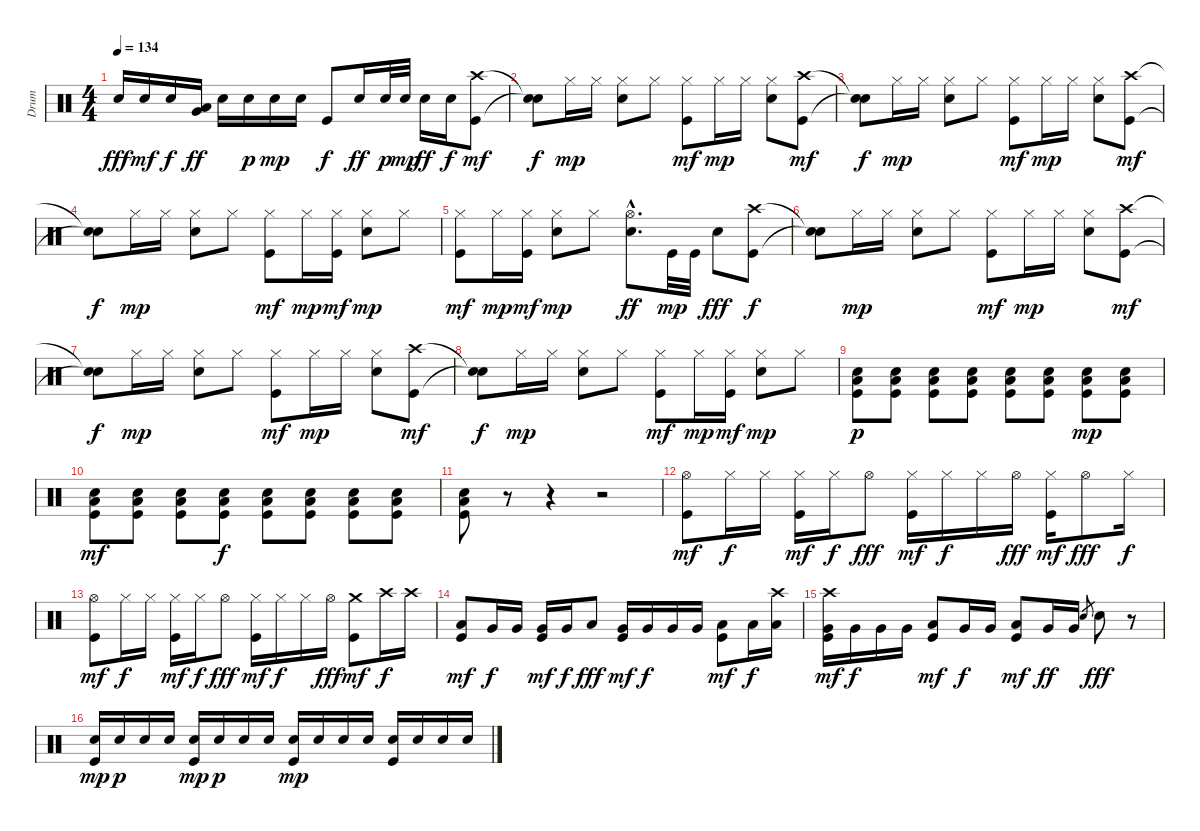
\track ("Drum" "Drum") {instrument percussion}
\staff {score}
\articulation defaults
\ts (4 4)
\tempo 134
\clef neutral
\ks c "Electric Snare (hit)".16{dy fff} "Electric Snare (hit)".16{dy mf} "Electric Snare (hit)".16{dy f}
("Low Tom (hit)" "Very Low Tom (hit)").16{dy ff} "Electric Snare (hit)".16 "Electric Snare (hit)".16{dy p} "Electric Snare (hit)".16{dy mp} "Electric Snare (hit)".16 "Kick (hit)".8{dy f} "Electric Snare (hit)".16{dy ff} "Electric Snare (hit)".32{dy p} "Electric Snare (hit)".32{dy mp} "Electric Snare (hit)".16{dy ff} "Electric Snare (hit)".16{dy f} ("Crash high (hit)" "Kick (hit)").8{dy mf} |
("Snare (hit)"{t} "Snare (hit)"{t}).8{dy f} "Hi-Hat (closed)".16{dy mp} "Hi-Hat (closed)".16 ("Hi-Hat (closed)" "Electric Snare (hit)").8 "Hi-Hat (closed)".8 ("Hi-Hat (closed)" "Kick (hit)").8{dy mf} "Hi-Hat (closed)".16{dy mp} "Hi-Hat (closed)".16 ("Hi-Hat (closed)" "Electric Snare (hit)").8 ("Crash high (hit)" "Kick (hit)").8{dy mf} |
("Snare (hit)"{t} "Snare (hit)"{t}).8{dy f} "Hi-Hat (closed)".16{dy mp} "Hi-Hat (closed)".16 ("Hi-Hat (closed)" "Electric Snare (hit)").8 "Hi-Hat (closed)".8 ("Hi-Hat (closed)" "Kick (hit)").8{dy mf} "Hi-Hat (closed)".16{dy mp} "Hi-Hat (closed)".16 ("Hi-Hat (closed)" "Electric Snare (hit)").8 ("Crash high (hit)" "Kick (hit)").8{dy mf} |
("Snare (hit)"{t} "Snare (hit)"{t}).8{dy f} "Hi-Hat (closed)".16{dy mp} "Hi-Hat (closed)".16 ("Hi-Hat (closed)" "Electric Snare (hit)").8 "Hi-Hat (closed)".8 ("Hi-Hat (closed)" "Kick (hit)").8{dy mf} "Hi-Hat (closed)".16{dy mp} ("Hi-Hat (closed)" "Kick (hit)").16{dy mf} ("Hi-Hat (closed)" "Electric Snare (hit)").8{dy mp} "Hi-Hat (closed)".8 |
("Hi-Hat (closed)" "Kick (hit)").8{dy mf} "Hi-Hat (closed)".16{dy mp} ("Hi-Hat (closed)" "Kick (hit)").16{dy mf} ("Hi-Hat (closed)" "Electric Snare (hit)").8{dy mp} "Hi-Hat (closed)".8 ("Hi-Hat (open)"{hac} "Electric Snare (hit)"{hac}).8{d dy ff} "Kick (hit)".32{dy mp} "Kick (hit)".32 "Electric Snare (hit)".8{dy fff} ("Crash high (hit)" "Kick (hit)").8{dy f} |
("Snare (hit)"{t} "Snare (hit)"{t}).8 "Hi-Hat (closed)".16{dy mp} "Hi-Hat (closed)".16 ("Hi-Hat (closed)" "Electric Snare (hit)").8 "Hi-Hat (closed)".8 ("Hi-Hat (closed)" "Kick (hit)").8{dy mf} "Hi-Hat (closed)".16{dy mp} "Hi-Hat (closed)".16 ("Hi-Hat (closed)" "Electric Snare (hit)").8 ("Crash high (hit)" "Kick (hit)").8{dy mf} |
("Snare (hit)"{t} "Snare (hit)"{t}).8{dy f} "Hi-Hat (closed)".16{dy mp} "Hi-Hat (closed)".16 ("Hi-Hat (closed)" "Electric Snare (hit)").8 "Hi-Hat (closed)".8 ("Hi-Hat (closed)" "Kick (hit)").8{dy mf} "Hi-Hat (closed)".16{dy mp} "Hi-Hat (closed)".16 ("Hi-Hat (closed)" "Electric Snare (hit)").8 ("Crash high (hit)" "Kick (hit)").8{dy mf} |
("Snare (hit)"{t} "Snare (hit)"{t}).8{dy f} "Hi-Hat (closed)".16{dy mp} "Hi-Hat (closed)".16 ("Hi-Hat (closed)" "Electric Snare (hit)").8 "Hi-Hat (closed)".8 ("Hi-Hat (closed)" "Kick (hit)").8{dy mf} "Hi-Hat (closed)".16{dy mp} ("Hi-Hat (closed)" "Kick (hit)").16{dy mf} ("Hi-Hat (closed)" "Electric Snare (hit)").8{dy mp} "Hi-Hat (closed)".8 |
("Low Floor Tom (hit)" "Electric Snare (hit)" "Kick (hit)").8{dy p} ("Low Floor Tom (hit)" "Electric Snare (hit)" "Kick (hit)").8 ("Low Floor Tom (hit)" "Electric Snare (hit)" "Kick (hit)").8 ("Low Floor Tom (hit)" "Electric Snare (hit)" "Kick (hit)").8 ("Low Floor Tom (hit)" "Electric Snare (hit)" "Kick (hit)").8 ("Low Floor Tom (hit)" "Electric Snare (hit)" "Kick (hit)").8 ("Low Floor Tom (hit)" "Electric Snare (hit)" "Kick (hit)").8{dy mp} ("Low Floor Tom (hit)" "Electric Snare (hit)" "Kick (hit)").8 |
("Low Floor Tom (hit)" "Electric Snare (hit)" "Kick (hit)").8{dy mf} ("Low Floor Tom (hit)" "Electric Snare (hit)" "Kick (hit)").8 ("Low Floor Tom (hit)" "Electric Snare (hit)" "Kick (hit)").8 ("Low Floor Tom (hit)" "Electric Snare (hit)" "Kick (hit)").8{dy f} ("Low Floor Tom (hit)" "Electric Snare (hit)" "Kick (hit)").8 ("Low Floor Tom (hit)" "Electric Snare (hit)" "Kick (hit)").8 ("Low Floor Tom (hit)" "Electric Snare (hit)" "Kick (hit)").8 ("Low Floor Tom (hit)" "Electric Snare (hit)" "Kick (hit)").8 |
("Low Floor Tom (hit)" "Electric Snare (hit)" "Kick (hit)").8 r.8 r.4 r.2 |
("Hi-Hat (open)" "Kick (hit)").8{dy mf} "Hi-Hat (closed)".16{dy f} "Hi-Hat (closed)".16 ("Hi-Hat (closed)" "Kick (hit)").16{dy mf} "Hi-Hat (closed)".16{dy f} "Hi-Hat (open)".8{dy fff} ("Hi-Hat (closed)" "Kick (hit)").16{dy mf} "Hi-Hat (closed)".16{dy f} "Hi-Hat (closed)".16 "Hi-Hat (open)".16{dy fff} ("Hi-Hat (closed)" "Kick (hit)").16{dy mf} "Hi-Hat (open)".8{dy fff} "Hi-Hat (closed)".16{dy f} |
("Hi-Hat (open)" "Kick (hit)").8{dy mf} "Hi-Hat (closed)".16{dy f} "Hi-Hat (closed)".16 ("Hi-Hat (closed)" "Kick (hit)").16{dy mf} "Hi-Hat (closed)".16{dy f} "Hi-Hat (open)".8{dy fff} ("Hi-Hat (closed)" "Kick (hit)").16{dy mf} "Hi-Hat (closed)".16{dy f} "Hi-Hat (closed)".16 "Hi-Hat (open)".16{dy fff} ("Crash medium (hit)" "Kick (hit)").8{dy mf} "Crash high (hit)".16{dy f} "Crash high (hit)".16 |
("Low Tom (hit)" "Kick (hit)").8{dy mf} "Very Low Tom (hit)".16{dy f} "Very Low Tom (hit)".16 ("Very Low Tom (hit)" "Kick (hit)").16{dy mf} "Very Low Tom (hit)".16{dy f} "Low Tom (hit)".8{dy fff} ("Very Low Tom (hit)" "Kick (hit)").16{dy mf} "Very Low Tom (hit)".16{dy f} "Very Low Tom (hit)".16 "Very Low Tom (hit)".16 ("Low Tom (hit)" "Kick (hit)").8{dy mf} "Low Tom (hit)".16{dy f} ("Low Tom (hit)" "Crash high (hit)").16 |
("Very Low Tom (hit)" "Crash high (hit)" "Kick (hit)").16{dy mf} "Very Low Tom (hit)".16{dy f} "Very Low Tom (hit)".16 "Very Low Tom (hit)".16 ("Low Tom (hit)" "Kick (hit)").8{dy mf} "Very Low Tom (hit)".16{dy f} "Very Low Tom (hit)".16 ("Low Tom (hit)" "Kick (hit)").8{dy mf} "Very Low Tom (hit)".16{dy ff} "Very Low Tom (hit)".16 "Electric Snare (hit)".8{gr} "Electric Snare (hit)".8{dy fff} r.8 |
("Electric Snare (hit)" "Kick (hit)").16{dy mp} "Electric Snare (hit)".16{dy p} "Electric Snare (hit)".16 "Electric Snare (hit)".16 ("Electric Snare (hit)" "Kick (hit)").16{dy mp} "Electric Snare (hit)".16{dy p} "Electric Snare (hit)".16 "Electric Snare (hit)".16 ("Electric Snare (hit)" "Kick (hit)").16{dy mp} "Electric Snare (hit)".16 "Electric Snare (hit)".16 "Electric Snare (hit)".16 ("Electric Snare (hit)" "Kick (hit)").16 "Electric Snare (hit)".16 "Electric Snare (hit)".16 "Electric Snare (hit)".16
